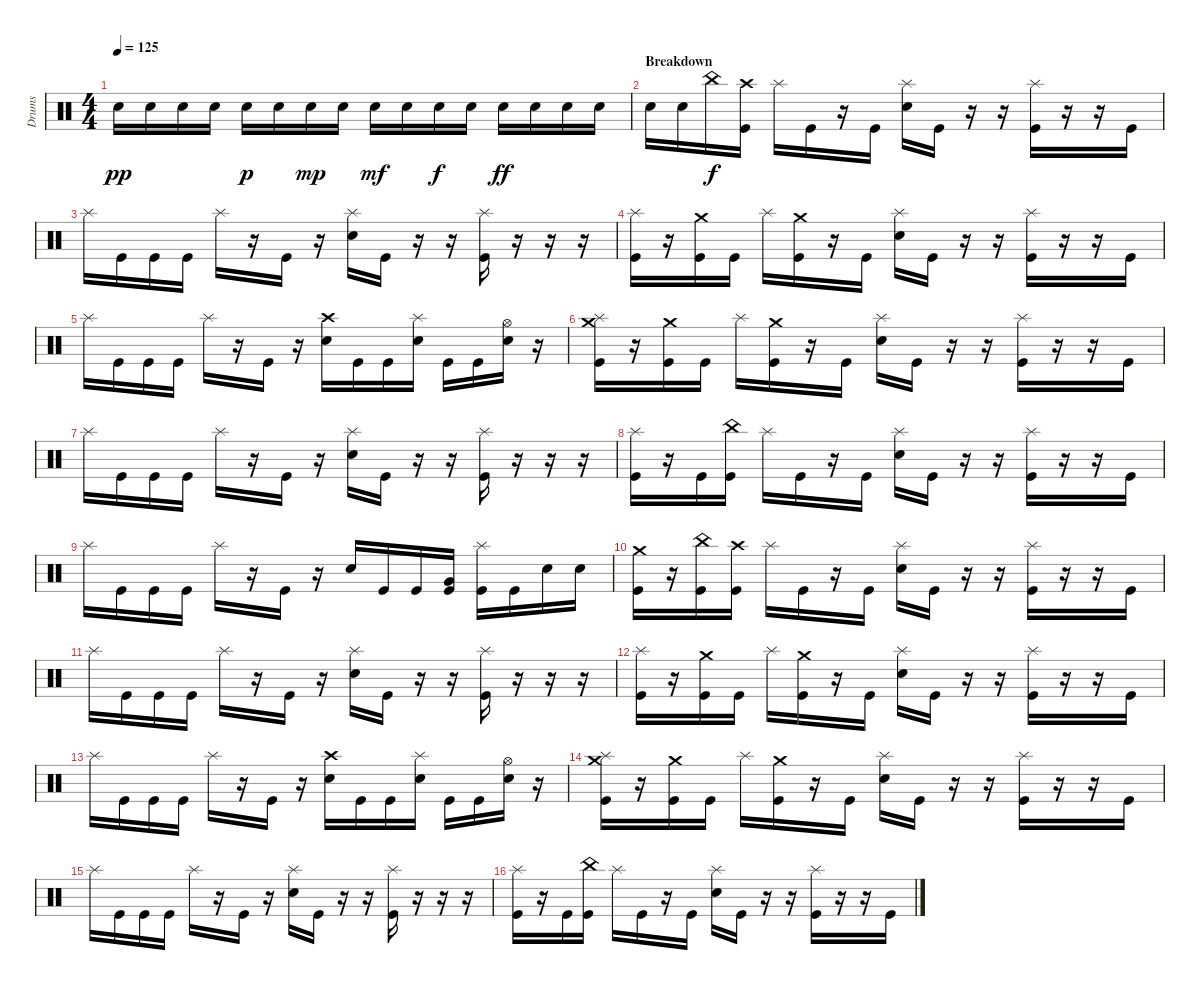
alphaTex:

\track ("Drums" "Drums") {instrument percussion}
\staff {score}
\articulation defaults
\ts (4 4)
\tempo 125
\clef neutral
\ks c "Snare (hit) 2".16{dy pp} "Snare (hit) 2".16 "Snare (hit) 2".16 "Snare (hit) 2".16 "Snare (hit) 2".16{dy p} "Snare (hit) 2".16 "Snare (hit) 2".16{dy mp} "Snare (hit) 2".16 "Snare (hit) 2".16{dy mf} "Snare (hit) 2".16 "Snare (hit) 2".16{dy f} "Snare (hit) 2".16 "Snare (hit) 2".16{dy ff} "Snare (hit) 2".16 "Snare (hit) 2".16 "Snare (hit) 2".16
|
\section ("" "Breakdown")
"Snare (hit) 2".16 "Snare (hit) 2".16 "China (hit)".16{dy f} ("Crash high (hit)" "Kick (hit)").16 "Splash (hit)".16 "Kick (hit)".16 r.16 "Kick (hit)".16 ("Splash (hit)" "Snare (hit) 2").16 "Kick (hit)".16 r.16 r.16 ("Kick (hit)" "Splash (hit)").16 r.16 r.16 "Kick (hit)".16 |
"Splash (hit)".16 "Kick (hit)".16 "Kick (hit)".16 "Kick (hit)".16 "Splash (hit)".16 r.16 "Kick (hit)".16 r.16 ("Splash (hit)" "Snare (hit) 2").16 "Kick (hit)".16 r.16 r.16 ("Splash (hit)" "Kick (hit)").16 r.16 r.16 r.16 |
("Splash (hit)" "Kick (hit)").16 r.16 ("Kick (hit)" "Crash medium (hit)").16 "Kick (hit)".16 "Splash (hit)".16 ("Kick (hit)" "Crash medium (hit)").16 r.16 "Kick (hit)".16 ("Splash (hit)" "Snare (hit) 2").16 "Kick (hit)".16 r.16 r.16 ("Splash (hit)" "Kick (hit)").16 r.16 r.16 "Kick (hit)".16 |
"Splash (hit)".16 "Kick (hit)".16 "Kick (hit)".16 "Kick (hit)".16 "Splash (hit)".16 r.16 "Kick (hit)".16 r.16 ("Snare (hit) 2" "Crash high (hit)").16 "Kick (hit)".16 "Kick (hit)".16 ("Snare (hit) 2" "Splash (hit)").16 "Kick (hit)".16 "Kick (hit)".16 ("Snare (hit) 2" "Hi-Hat (open)").16 r.16 |
("Kick (hit)" "Splash (hit)" "Crash medium (hit)").16 r.16 ("Kick (hit)" "Crash medium (hit)").16 "Kick (hit)".16 "Splash (hit)".16 ("Kick (hit)" "Crash medium (hit)").16 r.16 "Kick (hit)".16 ("Splash (hit)" "Snare (hit) 2").16 "Kick (hit)".16 r.16 r.16 ("Kick (hit)" "Splash (hit)").16 r.16 r.16 "Kick (hit)".16 |
"Splash (hit)".16 "Kick (hit)".16 "Kick (hit)".16 "Kick (hit)".16 "Splash (hit)".16 r.16 "Kick (hit)".16 r.16 ("Splash (hit)" "Snare (hit) 2").16 "Kick (hit)".16 r.16 r.16 ("Splash (hit)" "Kick (hit)").16 r.16 r.16 r.16 |
("Splash (hit)" "Kick (hit)").16 r.16 "Kick (hit)".16 ("Kick (hit)" "China (hit)").16 "Splash (hit)".16 "Kick (hit)".16 r.16 "Kick (hit)".16 ("Splash (hit)" "Snare (hit) 2").16 "Kick (hit)".16 r.16 r.16 ("Splash (hit)" "Kick (hit)").16 r.16 r.16 "Kick (hit)".16 |
"Splash (hit)".16 "Kick (hit)".16 "Kick (hit)".16 "Kick (hit)".16 "Splash (hit)".16 r.16 "Kick (hit)".16 r.16 "Snare (hit) 2".16 "Kick (hit)".16 "Kick (hit)".16 ("Kick (hit)" "Very Low Tom (hit)").16 ("Kick (hit)" "Splash (hit)").16 "Kick (hit)".16 "Snare (hit) 2".16 "Snare (hit) 2".16 |
("Kick (hit)" "Crash medium (hit)").16 r.16 ("China (hit)" "Kick (hit)").16 ("Crash high (hit)" "Kick (hit)").16 "Splash (hit)".16 "Kick (hit)".16 r.16 "Kick (hit)".16 ("Splash (hit)" "Snare (hit) 2").16 "Kick (hit)".16 r.16 r.16 ("Kick (hit)" "Splash (hit)").16 r.16 r.16 "Kick (hit)".16 |
"Splash (hit)".16 "Kick (hit)".16 "Kick (hit)".16 "Kick (hit)".16 "Splash (hit)".16 r.16 "Kick (hit)".16 r.16 ("Splash (hit)" "Snare (hit) 2").16 "Kick (hit)".16 r.16 r.16 ("Splash (hit)" "Kick (hit)").16 r.16 r.16 r.16 |
("Splash (hit)" "Kick (hit)").16 r.16 ("Kick (hit)" "Crash medium (hit)").16 "Kick (hit)".16 "Splash (hit)".16 ("Kick (hit)" "Crash medium (hit)").16 r.16 "Kick (hit)".16 ("Splash (hit)" "Snare (hit) 2").16 "Kick (hit)".16 r.16 r.16 ("Splash (hit)" "Kick (hit)").16 r.16 r.16 "Kick (hit)".16 |
"Splash (hit)".16 "Kick (hit)".16 "Kick (hit)".16 "Kick (hit)".16 "Splash (hit)".16 r.16 "Kick (hit)".16 r.16 ("Snare (hit) 2" "Crash high (hit)").16 "Kick (hit)".16 "Kick (hit)".16 ("Snare (hit) 2" "Splash (hit)").16 "Kick (hit)".16 "Kick (hit)".16 ("Snare (hit) 2" "Hi-Hat (open)").16 r.16 |
("Kick (hit)" "Splash (hit)" "Crash medium (hit)").16 r.16 ("Kick (hit)" "Crash medium (hit)").16 "Kick (hit)".16 "Splash (hit)".16 ("Kick (hit)" "Crash medium (hit)").16 r.16 "Kick (hit)".16 ("Splash (hit)" "Snare (hit) 2").16 "Kick (hit)".16 r.16 r.16 ("Kick (hit)" "Splash (hit)").16 r.16 r.16 "Kick (hit)".16 |
"Splash (hit)".16 "Kick (hit)".16 "Kick (hit)".16 "Kick (hit)".16 "Splash (hit)".16 r.16 "Kick (hit)".16 r.16 ("Splash (hit)" "Snare (hit) 2").16 "Kick (hit)".16 r.16 r.16 ("Splash (hit)" "Kick (hit)").16 r.16 r.16 r.16 |
("Splash (hit)" "Kick (hit)").16 r.16 "Kick (hit)".16 ("Kick (hit)" "China (hit)").16 "Splash (hit)".16 "Kick (hit)".16 r.16 "Kick (hit)".16 ("Splash (hit)" "Snare (hit) 2").16 "Kick (hit)".16 r.16 r.16 ("Splash (hit)" "Kick (hit)").16 r.16 r.16 "Kick (hit)".16
